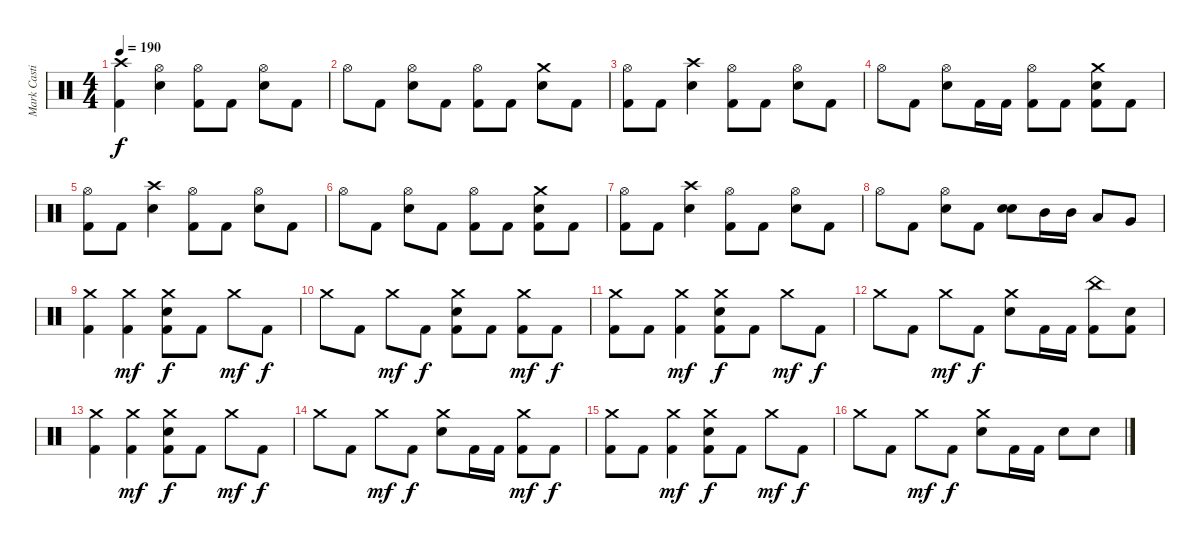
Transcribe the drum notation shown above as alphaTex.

\track ("Mark Castillo" "Mark Casti") {instrument percussion}
\staff {score}
\articulation defaults
\ts (4 4)
\tempo 190
\clef neutral
\ks c
("Crash high (hit)" "Kick (hit) 2").4{dy f} ("Hi-Hat (open)" "Electric Snare (hit)").4 ("Hi-Hat (open)" "Kick (hit) 2").8 "Kick (hit) 2".8 ("Hi-Hat (open)" "Electric Snare (hit)").8 "Kick (hit) 2".8 |
"Hi-Hat (open)".8 "Kick (hit) 2".8 ("Hi-Hat (open)" "Electric Snare (hit)").8 "Kick (hit) 2".8 ("Hi-Hat (open)" "Kick (hit) 2").8 "Kick (hit) 2".8 ("Crash medium (hit)" "Electric Snare (hit)").8 "Kick (hit) 2".8 |
("Hi-Hat (open)" "Kick (hit) 2").8 "Kick (hit) 2".8 ("Crash high (hit)" "Electric Snare (hit)").4 ("Hi-Hat (open)" "Kick (hit) 2").8 "Kick (hit) 2".8 ("Hi-Hat (open)" "Electric Snare (hit)").8 "Kick (hit) 2".8 |
"Hi-Hat (open)".8 "Kick (hit) 2".8 ("Hi-Hat (open)" "Electric Snare (hit)").8 "Kick (hit) 2".16 "Kick (hit) 2".16 ("Hi-Hat (open)" "Kick (hit) 2").8 "Kick (hit) 2".8 ("Crash medium (hit)" "Electric Snare (hit)" "Kick (hit) 2").8 "Kick (hit) 2".8 |
("Hi-Hat (open)" "Kick (hit) 2").8 "Kick (hit) 2".8 ("Crash high (hit)" "Electric Snare (hit)").4 ("Hi-Hat (open)" "Kick (hit) 2").8 "Kick (hit) 2".8 ("Hi-Hat (open)" "Electric Snare (hit)").8 "Kick (hit) 2".8 |
"Hi-Hat (open)".8 "Kick (hit) 2".8 ("Hi-Hat (open)" "Electric Snare (hit)").8 "Kick (hit) 2".8 ("Hi-Hat (open)" "Kick (hit) 2").8 "Kick (hit) 2".8 ("Crash medium (hit)" "Electric Snare (hit)" "Kick (hit) 2").8 "Kick (hit) 2".8 |
("Hi-Hat (open)" "Kick (hit) 2").8 "Kick (hit) 2".8 ("Crash high (hit)" "Electric Snare (hit)").4 ("Hi-Hat (open)" "Kick (hit) 2").8 "Kick (hit) 2".8 ("Hi-Hat (open)" "Electric Snare (hit)").8 "Kick (hit) 2".8 |
"Hi-Hat (open)".8 "Kick (hit) 2".8 ("Hi-Hat (open)" "Electric Snare (hit)").8 "Kick (hit) 2".8 ("Electric Snare (hit)" "Electric Snare (hit)").8{bd 120} "Mid Tom (hit)".16 "Mid Tom (hit)".16 "Low Tom (hit)".8 "Very Low Tom (hit)".8 |
("Crash medium (hit)" "Kick (hit) 2").4 ("Crash medium (hit)" "Kick (hit) 2").4{dy mf} ("Crash medium (hit)" "Electric Snare (hit)" "Kick (hit) 2").8{dy f} "Kick (hit) 2".8 "Crash medium (hit)".8{dy mf} "Kick (hit) 2".8{dy f} |
"Crash medium (hit)".8 "Kick (hit) 2".8 "Crash medium (hit)".8{dy mf} "Kick (hit) 2".8{dy f} ("Crash medium (hit)" "Electric Snare (hit)" "Kick (hit) 2").8 "Kick (hit) 2".8 ("Crash medium (hit)" "Kick (hit) 2").8{dy mf} "Kick (hit) 2".8{dy f} |
("Crash medium (hit)" "Kick (hit) 2").8 "Kick (hit) 2".8 ("Crash medium (hit)" "Kick (hit) 2").4{dy mf} ("Crash medium (hit)" "Electric Snare (hit)" "Kick (hit) 2").8{dy f} "Kick (hit) 2".8 "Crash medium (hit)".8{dy mf} "Kick (hit) 2".8{dy f} |
"Crash medium (hit)".8 "Kick (hit) 2".8 "Crash medium (hit)".8{dy mf} "Kick (hit) 2".8{dy f} ("Crash medium (hit)" "Electric Snare (hit)").8 "Kick (hit) 2".16 "Kick (hit) 2".16 ("China (hit)" "Kick (hit) 2").8 ("Electric Snare (hit)" "Kick (hit) 2").8 |
("Crash medium (hit)" "Kick (hit) 2").4 ("Crash medium (hit)" "Kick (hit) 2").4{dy mf} ("Crash medium (hit)" "Electric Snare (hit)" "Kick (hit) 2").8{dy f} "Kick (hit) 2".8 "Crash medium (hit)".8{dy mf} "Kick (hit) 2".8{dy f} |
"Crash medium (hit)".8 "Kick (hit) 2".8 "Crash medium (hit)".8{dy mf} "Kick (hit) 2".8{dy f} ("Crash medium (hit)" "Electric Snare (hit)").8 "Kick (hit) 2".16 "Kick (hit) 2".16 ("Crash medium (hit)" "Kick (hit) 2").8{dy mf} "Kick (hit) 2".8{dy f} |
("Crash medium (hit)" "Kick (hit) 2").8 "Kick (hit) 2".8 ("Crash medium (hit)" "Kick (hit) 2").4{dy mf} ("Crash medium (hit)" "Electric Snare (hit)" "Kick (hit) 2").8{dy f} "Kick (hit) 2".8 "Crash medium (hit)".8{dy mf} "Kick (hit) 2".8{dy f} |
"Crash medium (hit)".8 "Kick (hit) 2".8 "Crash medium (hit)".8{dy mf} "Kick (hit) 2".8{dy f} ("Crash medium (hit)" "Electric Snare (hit)").8 "Kick (hit) 2".16 "Kick (hit) 2".16 "Electric Snare (hit)".8 "Electric Snare (hit)".8
